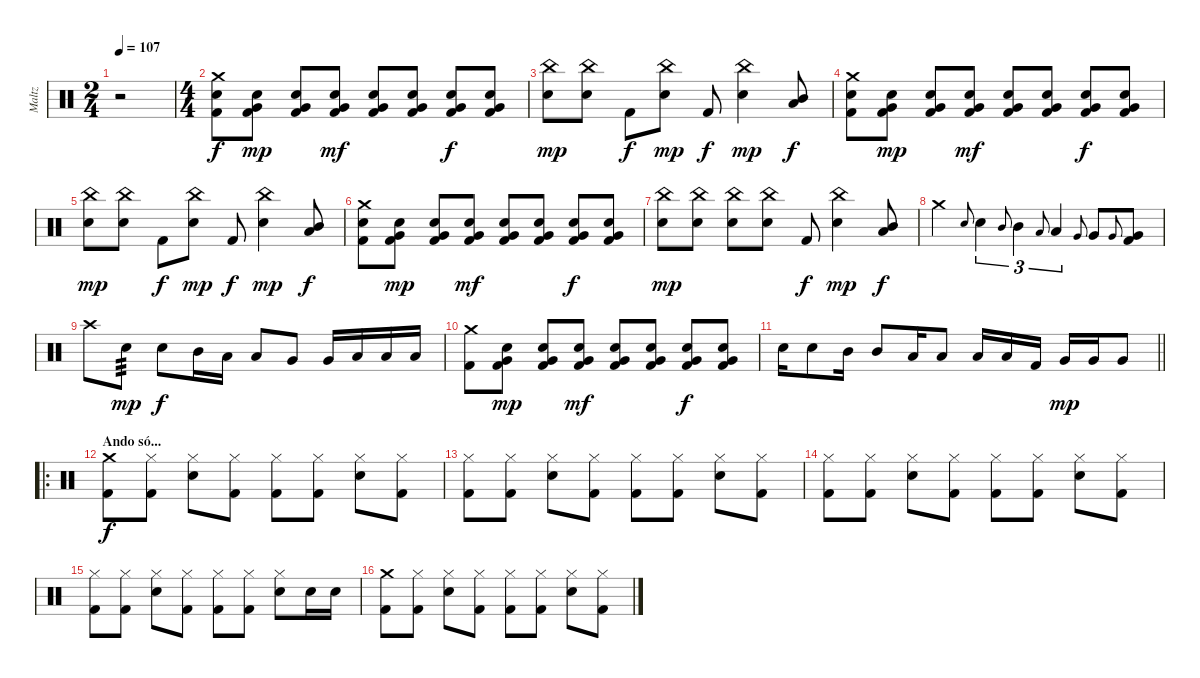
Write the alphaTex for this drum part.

\track ("Maltz" "Maltz") {instrument percussion}
\staff {score}
\articulation defaults
\ts (2 4)
\tempo 107
\clef neutral
\ks c
r.2{dy f} |
\ts (4 4)
("Crash medium (hit)" "Snare (hit) 2" "Kick (hit) 2").8 ("Very Low Tom (hit)" "Snare (hit) 2" "Kick (hit) 2").8{dy mp} ("Very Low Tom (hit)" "Snare (hit) 2" "Kick (hit) 2").8 ("Very Low Tom (hit)" "Snare (hit) 2" "Kick (hit) 2").8{dy mf} ("Very Low Tom (hit)" "Snare (hit) 2" "Kick (hit) 2").8 ("Very Low Tom (hit)" "Snare (hit) 2" "Kick (hit) 2").8 ("Very Low Tom (hit)" "Snare (hit) 2" "Kick (hit) 2").8{dy f} ("Very Low Tom (hit)" "Snare (hit) 2" "Kick (hit) 2").8 |
("China (hit)" "Snare (hit) 2").8{dy mp} ("China (hit)" "Snare (hit) 2").8 "Kick (hit) 2".8{dy f} ("China (hit)" "Snare (hit) 2").8{dy mp} "Kick (hit) 2".8{dy f} ("China (hit)" "Snare (hit) 2").4{dy mp} ("Mid Tom (hit)" "Low Tom (hit)").8{dy f} |
("Crash medium (hit)" "Snare (hit) 2" "Kick (hit) 2").8 ("Very Low Tom (hit)" "Snare (hit) 2" "Kick (hit) 2").8{dy mp} ("Very Low Tom (hit)" "Snare (hit) 2" "Kick (hit) 2").8 ("Very Low Tom (hit)" "Snare (hit) 2" "Kick (hit) 2").8{dy mf} ("Very Low Tom (hit)" "Snare (hit) 2" "Kick (hit) 2").8 ("Very Low Tom (hit)" "Snare (hit) 2" "Kick (hit) 2").8 ("Very Low Tom (hit)" "Snare (hit) 2" "Kick (hit) 2").8{dy f} ("Very Low Tom (hit)" "Snare (hit) 2" "Kick (hit) 2").8 |
("China (hit)" "Snare (hit) 2").8{dy mp} ("China (hit)" "Snare (hit) 2").8 "Kick (hit) 2".8{dy f} ("China (hit)" "Snare (hit) 2").8{dy mp} "Kick (hit) 2".8{dy f} ("China (hit)" "Snare (hit) 2").4{dy mp} ("Mid Tom (hit)" "Low Tom (hit)").8{dy f} |
("Crash medium (hit)" "Snare (hit) 2" "Kick (hit) 2").8 ("Very Low Tom (hit)" "Snare (hit) 2" "Kick (hit) 2").8{dy mp} ("Very Low Tom (hit)" "Snare (hit) 2" "Kick (hit) 2").8 ("Very Low Tom (hit)" "Snare (hit) 2" "Kick (hit) 2").8{dy mf} ("Very Low Tom (hit)" "Snare (hit) 2" "Kick (hit) 2").8 ("Very Low Tom (hit)" "Snare (hit) 2" "Kick (hit) 2").8 ("Very Low Tom (hit)" "Snare (hit) 2" "Kick (hit) 2").8{dy f} ("Very Low Tom (hit)" "Snare (hit) 2" "Kick (hit) 2").8 |
("China (hit)" "Snare (hit) 2").8{dy mp} ("China (hit)" "Snare (hit) 2").8 ("China (hit)" "Snare (hit) 2").8 ("China (hit)" "Snare (hit) 2").8 "Kick (hit) 2".8{dy f} ("China (hit)" "Snare (hit) 2").4{dy mp} ("Mid Tom (hit)" "Low Tom (hit)").8{dy f} |
"Crash medium (hit)".4 "Snare (hit) 2".8{gr onbeat} "Snare (hit) 2".4{tu (3 2)} "Mid Tom (hit)".8{gr onbeat} "Mid Tom (hit)".4{tu (3 2)} "Low Tom (hit)".8{gr onbeat} "Low Tom (hit)".4{tu (3 2)} "Very Low Tom (hit)".8{gr onbeat} "Very Low Tom (hit)".8 "Very Low Tom (hit)".8{gr onbeat} ("Very Low Tom (hit)" "Kick (hit) 2").8 |
"Crash high (hit)".8 "Snare (hit) 2".8{tp 3 dy mp} "Snare (hit) 2".8{dy f} "Mid Tom (hit)".16 "Low Tom (hit)".16 "Low Tom (hit)".8 "Very Low Tom (hit)".8 "Very Low Tom (hit)".16 "Low Tom (hit)".16 "Low Tom (hit)".16 "Low Tom (hit)".16 |
("Crash medium (hit)" "Kick (hit) 2").8 ("Very Low Tom (hit)" "Snare (hit) 2" "Kick (hit) 2").8{dy mp} ("Very Low Tom (hit)" "Snare (hit) 2" "Kick (hit) 2").8 ("Very Low Tom (hit)" "Snare (hit) 2" "Kick (hit) 2").8{dy mf} ("Very Low Tom (hit)" "Snare (hit) 2" "Kick (hit) 2").8 ("Very Low Tom (hit)" "Snare (hit) 2" "Kick (hit) 2").8 ("Very Low Tom (hit)" "Snare (hit) 2" "Kick (hit) 2").8{dy f} ("Very Low Tom (hit)" "Snare (hit) 2" "Kick (hit) 2").8 |
\barLineRight lightlight "Snare (hit) 2".16 "Snare (hit) 2".8 "Mid Tom (hit)".16 "Mid Tom (hit)".8 "Low Tom (hit)".16 "Low Tom (hit)".8 "Low Tom (hit)".16 "Low Tom (hit)".16 "Kick (hit) 2".16 "Very Low Tom (hit)".16{dy mp} "Very Low Tom (hit)".16 "Very Low Tom (hit)".8
|
\ro
\section ("" "Ando só...")
("Crash medium (hit)" "Kick (hit) 2").8{dy f} ("Hi-Hat (closed)" "Kick (hit) 2").8 ("Hi-Hat (closed)" "Snare (hit) 2").8 ("Hi-Hat (closed)" "Kick (hit) 2").8 ("Hi-Hat (closed)" "Kick (hit) 2").8 ("Hi-Hat (closed)" "Kick (hit) 2").8 ("Hi-Hat (closed)" "Snare (hit) 2").8 ("Hi-Hat (closed)" "Kick (hit) 2").8 |
("Hi-Hat (closed)" "Kick (hit) 2").8 ("Hi-Hat (closed)" "Kick (hit) 2").8 ("Hi-Hat (closed)" "Snare (hit) 2").8 ("Hi-Hat (closed)" "Kick (hit) 2").8 ("Hi-Hat (closed)" "Kick (hit) 2").8 ("Hi-Hat (closed)" "Kick (hit) 2").8 ("Hi-Hat (closed)" "Snare (hit) 2").8 ("Hi-Hat (closed)" "Kick (hit) 2").8 |
("Hi-Hat (closed)" "Kick (hit) 2").8 ("Hi-Hat (closed)" "Kick (hit) 2").8 ("Hi-Hat (closed)" "Snare (hit) 2").8 ("Hi-Hat (closed)" "Kick (hit) 2").8 ("Hi-Hat (closed)" "Kick (hit) 2").8 ("Hi-Hat (closed)" "Kick (hit) 2").8 ("Hi-Hat (closed)" "Snare (hit) 2").8 ("Hi-Hat (closed)" "Kick (hit) 2").8 |
("Hi-Hat (closed)" "Kick (hit) 2").8 ("Hi-Hat (closed)" "Kick (hit) 2").8 ("Hi-Hat (closed)" "Snare (hit) 2").8 ("Hi-Hat (closed)" "Kick (hit) 2").8 ("Hi-Hat (closed)" "Kick (hit) 2").8 ("Hi-Hat (closed)" "Kick (hit) 2").8 ("Hi-Hat (closed)" "Snare (hit) 2").8 "Snare (hit) 2".16 "Snare (hit) 2".16 |
("Crash medium (hit)" "Kick (hit) 2").8 ("Hi-Hat (closed)" "Kick (hit) 2").8 ("Hi-Hat (closed)" "Snare (hit) 2").8 ("Hi-Hat (closed)" "Kick (hit) 2").8 ("Hi-Hat (closed)" "Kick (hit) 2").8 ("Hi-Hat (closed)" "Kick (hit) 2").8 ("Hi-Hat (closed)" "Snare (hit) 2").8 ("Hi-Hat (closed)" "Kick (hit) 2").8
